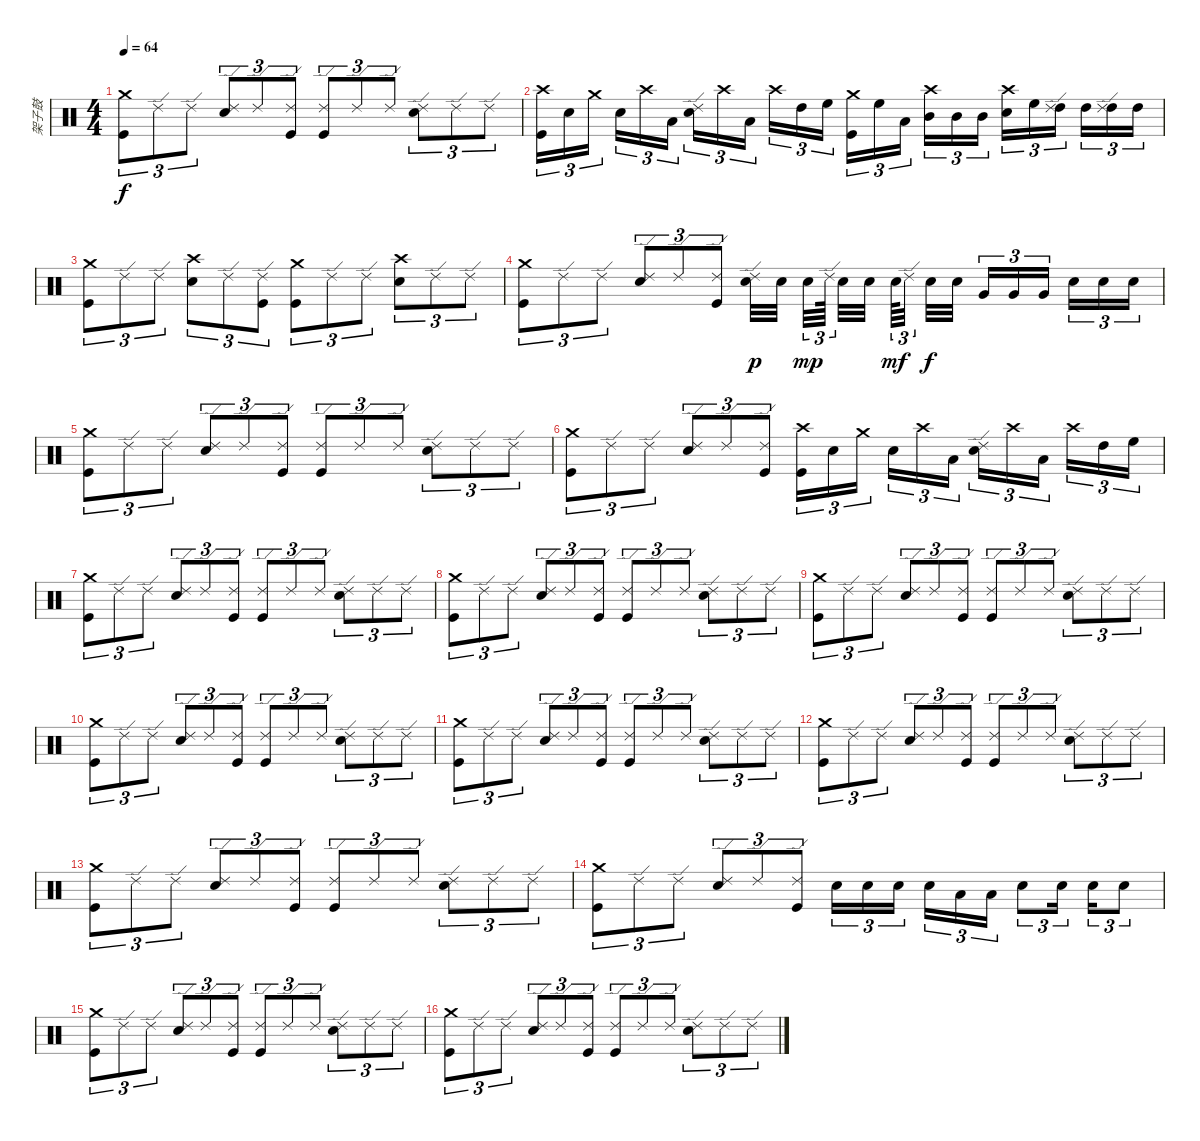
\track ("架子鼓" "架子鼓") {instrument percussion}
\staff {score}
\articulation defaults
\ts (4 4)
\tempo 64
\clef neutral
\ks c
("Kick (hit)" "Crash medium (hit)").8{tu (3 2) dy f} "Ride (edge) 2".8{tu (3 2)} "Ride (edge) 2".8{tu (3 2)} ("Electric Snare (hit)" "Ride (edge) 2").8{tu (3 2)} "Ride (edge) 2".8{tu (3 2)} ("Ride (edge) 2" "Kick (hit)").8{tu (3 2)} ("Kick (hit)" "Ride (edge) 2").8{tu (3 2)} "Ride (edge) 2".8{tu (3 2)} "Ride (edge) 2".8{tu (3 2)} ("Ride (edge) 2" "Electric Snare (hit)").8{tu (3 2)} "Ride (edge) 2".8{tu (3 2)} "Ride (edge) 2".8{tu (3 2)} |
("Crash high (hit)" "Kick (hit)").16{tu (3 2)} "Electric Snare (hit)".16{tu (3 2)} "Crash medium (hit)".16{tu (3 2)} "Electric Snare (hit)".16{tu (3 2)} "Crash high (hit)".16{tu (3 2)} "Low Tom (hit)".16{tu (3 2)} ("Electric Snare (hit)" "Ride (edge) 2").16{tu (3 2)} "Crash high (hit)".16{tu (3 2)} "Low Tom (hit)".16{tu (3 2)} "Crash high (hit)".16{tu (3 2)} "High Tom (hit)".16{tu (3 2)} "High Floor Tom (hit)".16{tu (3 2)} ("Kick (hit)" "Crash medium (hit)").16{tu (3 2)} "High Floor Tom (hit)".16{tu (3 2)} "Low Tom (hit)".16{tu (3 2)} ("Crash high (hit)" "Mid Tom (hit)").16{tu (3 2)} "Mid Tom (hit)".16{tu (3 2)} "Mid Tom (hit)".16{tu (3 2)} ("Crash high (hit)" "Electric Snare (hit)").16{tu (3 2)} "High Floor Tom (hit)".16{tu (3 2)} ("High Tom (hit)" "Ride (edge) 2").16{tu (3 2)} "High Tom (hit)".16{tu (3 2)} ("High Tom (hit)" "Ride (edge) 2").16{tu (3 2)} "High Tom (hit)".16{tu (3 2)} |
("Kick (hit)" "Crash medium (hit)").8{tu (3 2)} "Ride (edge) 2".8{tu (3 2)} "Ride (edge) 2".8{tu (3 2)} ("Electric Snare (hit)" "Crash high (hit)").8{tu (3 2)} "Ride (edge) 2".8{tu (3 2)} ("Ride (edge) 2" "Kick (hit)").8{tu (3 2)} ("Kick (hit)" "Crash medium (hit)").8{tu (3 2)} "Ride (edge) 2".8{tu (3 2)} "Ride (edge) 2".8{tu (3 2)} ("Crash high (hit)" "Electric Snare (hit)").8{tu (3 2)} "Ride (edge) 2".8{tu (3 2)} "Ride (edge) 2".8{tu (3 2)} |
("Kick (hit)" "Crash medium (hit)").8{tu (3 2)} "Ride (edge) 2".8{tu (3 2)} "Ride (edge) 2".8{tu (3 2)} ("Electric Snare (hit)" "Ride (edge) 2").8{tu (3 2)} "Ride (edge) 2".8{tu (3 2)} ("Ride (edge) 2" "Kick (hit)").8{tu (3 2)} ("Electric Snare (hit)" "Ride (edge) 2").32{dy p} "Electric Snare (hit)".32 "Electric Snare (hit)".32{tu (3 2) dy mp} "Ride (edge) 2".64{tu (3 2)} "Electric Snare (hit)".32 "Electric Snare (hit)".32 "Electric Snare (hit)".64{tu (3 2) dy mf} "Ride (edge) 2".32{tu (3 2)} "Electric Snare (hit)".32{dy f} "Electric Snare (hit)".32 "Very Low Tom (hit)".16{tu (3 2)} "Very Low Tom (hit)".16{tu (3 2)} "Very Low Tom (hit)".16{tu (3 2)} "Electric Snare (hit)".16{tu (3 2)} "Electric Snare (hit)".16{tu (3 2)} "Electric Snare (hit)".16{tu (3 2)} |
("Kick (hit)" "Crash medium (hit)").8{tu (3 2)} "Ride (edge) 2".8{tu (3 2)} "Ride (edge) 2".8{tu (3 2)} ("Electric Snare (hit)" "Ride (edge) 2").8{tu (3 2)} "Ride (edge) 2".8{tu (3 2)} ("Ride (edge) 2" "Kick (hit)").8{tu (3 2)} ("Kick (hit)" "Ride (edge) 2").8{tu (3 2)} "Ride (edge) 2".8{tu (3 2)} "Ride (edge) 2".8{tu (3 2)} ("Ride (edge) 2" "Electric Snare (hit)").8{tu (3 2)} "Ride (edge) 2".8{tu (3 2)} "Ride (edge) 2".8{tu (3 2)} |
("Kick (hit)" "Crash medium (hit)").8{tu (3 2)} "Ride (edge) 2".8{tu (3 2)} "Ride (edge) 2".8{tu (3 2)} ("Electric Snare (hit)" "Ride (edge) 2").8{tu (3 2)} "Ride (edge) 2".8{tu (3 2)} ("Ride (edge) 2" "Kick (hit)").8{tu (3 2)} ("Crash high (hit)" "Kick (hit)").16{tu (3 2)} "Electric Snare (hit)".16{tu (3 2)} "Crash medium (hit)".16{tu (3 2)} "Electric Snare (hit)".16{tu (3 2)} "Crash high (hit)".16{tu (3 2)} "Low Tom (hit)".16{tu (3 2)} ("Electric Snare (hit)" "Ride (edge) 2").16{tu (3 2)} "Crash high (hit)".16{tu (3 2)} "Low Tom (hit)".16{tu (3 2)} "Crash high (hit)".16{tu (3 2)} "High Tom (hit)".16{tu (3 2)} "High Floor Tom (hit)".16{tu (3 2)} |
("Kick (hit)" "Crash medium (hit)").8{tu (3 2)} "Ride (edge) 2".8{tu (3 2)} "Ride (edge) 2".8{tu (3 2)} ("Electric Snare (hit)" "Ride (edge) 2").8{tu (3 2)} "Ride (edge) 2".8{tu (3 2)} ("Ride (edge) 2" "Kick (hit)").8{tu (3 2)} ("Kick (hit)" "Ride (edge) 2").8{tu (3 2)} "Ride (edge) 2".8{tu (3 2)} "Ride (edge) 2".8{tu (3 2)} ("Ride (edge) 2" "Electric Snare (hit)").8{tu (3 2)} "Ride (edge) 2".8{tu (3 2)} "Ride (edge) 2".8{tu (3 2)} |
("Kick (hit)" "Crash medium (hit)").8{tu (3 2)} "Ride (edge) 2".8{tu (3 2)} "Ride (edge) 2".8{tu (3 2)} ("Electric Snare (hit)" "Ride (edge) 2").8{tu (3 2)} "Ride (edge) 2".8{tu (3 2)} ("Ride (edge) 2" "Kick (hit)").8{tu (3 2)} ("Kick (hit)" "Ride (edge) 2").8{tu (3 2)} "Ride (edge) 2".8{tu (3 2)} "Ride (edge) 2".8{tu (3 2)} ("Ride (edge) 2" "Electric Snare (hit)").8{tu (3 2)} "Ride (edge) 2".8{tu (3 2)} "Ride (edge) 2".8{tu (3 2)} |
("Kick (hit)" "Crash medium (hit)").8{tu (3 2)} "Ride (edge) 2".8{tu (3 2)} "Ride (edge) 2".8{tu (3 2)} ("Electric Snare (hit)" "Ride (edge) 2").8{tu (3 2)} "Ride (edge) 2".8{tu (3 2)} ("Ride (edge) 2" "Kick (hit)").8{tu (3 2)} ("Kick (hit)" "Ride (edge) 2").8{tu (3 2)} "Ride (edge) 2".8{tu (3 2)} "Ride (edge) 2".8{tu (3 2)} ("Ride (edge) 2" "Electric Snare (hit)").8{tu (3 2)} "Ride (edge) 2".8{tu (3 2)} "Ride (edge) 2".8{tu (3 2)} |
("Kick (hit)" "Crash medium (hit)").8{tu (3 2)} "Ride (edge) 2".8{tu (3 2)} "Ride (edge) 2".8{tu (3 2)} ("Electric Snare (hit)" "Ride (edge) 2").8{tu (3 2)} "Ride (edge) 2".8{tu (3 2)} ("Ride (edge) 2" "Kick (hit)").8{tu (3 2)} ("Kick (hit)" "Ride (edge) 2").8{tu (3 2)} "Ride (edge) 2".8{tu (3 2)} "Ride (edge) 2".8{tu (3 2)} ("Ride (edge) 2" "Electric Snare (hit)").8{tu (3 2)} "Ride (edge) 2".8{tu (3 2)} "Ride (edge) 2".8{tu (3 2)} |
("Kick (hit)" "Crash medium (hit)").8{tu (3 2)} "Ride (edge) 2".8{tu (3 2)} "Ride (edge) 2".8{tu (3 2)} ("Electric Snare (hit)" "Ride (edge) 2").8{tu (3 2)} "Ride (edge) 2".8{tu (3 2)} ("Ride (edge) 2" "Kick (hit)").8{tu (3 2)} ("Kick (hit)" "Ride (edge) 2").8{tu (3 2)} "Ride (edge) 2".8{tu (3 2)} "Ride (edge) 2".8{tu (3 2)} ("Ride (edge) 2" "Electric Snare (hit)").8{tu (3 2)} "Ride (edge) 2".8{tu (3 2)} "Ride (edge) 2".8{tu (3 2)} |
("Kick (hit)" "Crash medium (hit)").8{tu (3 2)} "Ride (edge) 2".8{tu (3 2)} "Ride (edge) 2".8{tu (3 2)} ("Electric Snare (hit)" "Ride (edge) 2").8{tu (3 2)} "Ride (edge) 2".8{tu (3 2)} ("Ride (edge) 2" "Kick (hit)").8{tu (3 2)} ("Kick (hit)" "Ride (edge) 2").8{tu (3 2)} "Ride (edge) 2".8{tu (3 2)} "Ride (edge) 2".8{tu (3 2)} ("Ride (edge) 2" "Electric Snare (hit)").8{tu (3 2)} "Ride (edge) 2".8{tu (3 2)} "Ride (edge) 2".8{tu (3 2)} |
("Kick (hit)" "Crash medium (hit)").8{tu (3 2)} "Ride (edge) 2".8{tu (3 2)} "Ride (edge) 2".8{tu (3 2)} ("Electric Snare (hit)" "Ride (edge) 2").8{tu (3 2)} "Ride (edge) 2".8{tu (3 2)} ("Ride (edge) 2" "Kick (hit)").8{tu (3 2)} ("Kick (hit)" "Ride (edge) 2").8{tu (3 2)} "Ride (edge) 2".8{tu (3 2)} "Ride (edge) 2".8{tu (3 2)} ("Ride (edge) 2" "Electric Snare (hit)").8{tu (3 2)} "Ride (edge) 2".8{tu (3 2)} "Ride (edge) 2".8{tu (3 2)} |
("Kick (hit)" "Crash medium (hit)").8{tu (3 2)} "Ride (edge) 2".8{tu (3 2)} "Ride (edge) 2".8{tu (3 2)} ("Electric Snare (hit)" "Ride (edge) 2").8{tu (3 2)} "Ride (edge) 2".8{tu (3 2)} ("Ride (edge) 2" "Kick (hit)").8{tu (3 2)} "Electric Snare (hit)".16{tu (3 2)} "Electric Snare (hit)".16{tu (3 2)} "Electric Snare (hit)".16{tu (3 2)} "Electric Snare (hit)".16{tu (3 2)} "Low Tom (hit)".16{tu (3 2)} "Low Tom (hit)".16{tu (3 2)} "Electric Snare (hit)".8{tu (3 2)} "Electric Snare (hit)".16{tu (3 2)} "Electric Snare (hit)".16{tu (3 2)} "Electric Snare (hit)".8{tu (3 2)} |
("Kick (hit)" "Crash medium (hit)").8{tu (3 2)} "Ride (edge) 2".8{tu (3 2)} "Ride (edge) 2".8{tu (3 2)} ("Electric Snare (hit)" "Ride (edge) 2").8{tu (3 2)} "Ride (edge) 2".8{tu (3 2)} ("Ride (edge) 2" "Kick (hit)").8{tu (3 2)} ("Kick (hit)" "Ride (edge) 2").8{tu (3 2)} "Ride (edge) 2".8{tu (3 2)} "Ride (edge) 2".8{tu (3 2)} ("Ride (edge) 2" "Electric Snare (hit)").8{tu (3 2)} "Ride (edge) 2".8{tu (3 2)} "Ride (edge) 2".8{tu (3 2)} |
("Kick (hit)" "Crash medium (hit)").8{tu (3 2)} "Ride (edge) 2".8{tu (3 2)} "Ride (edge) 2".8{tu (3 2)} ("Electric Snare (hit)" "Ride (edge) 2").8{tu (3 2)} "Ride (edge) 2".8{tu (3 2)} ("Ride (edge) 2" "Kick (hit)").8{tu (3 2)} ("Kick (hit)" "Ride (edge) 2").8{tu (3 2)} "Ride (edge) 2".8{tu (3 2)} "Ride (edge) 2".8{tu (3 2)} ("Ride (edge) 2" "Electric Snare (hit)").8{tu (3 2)} "Ride (edge) 2".8{tu (3 2)} "Ride (edge) 2".8{tu (3 2)}
